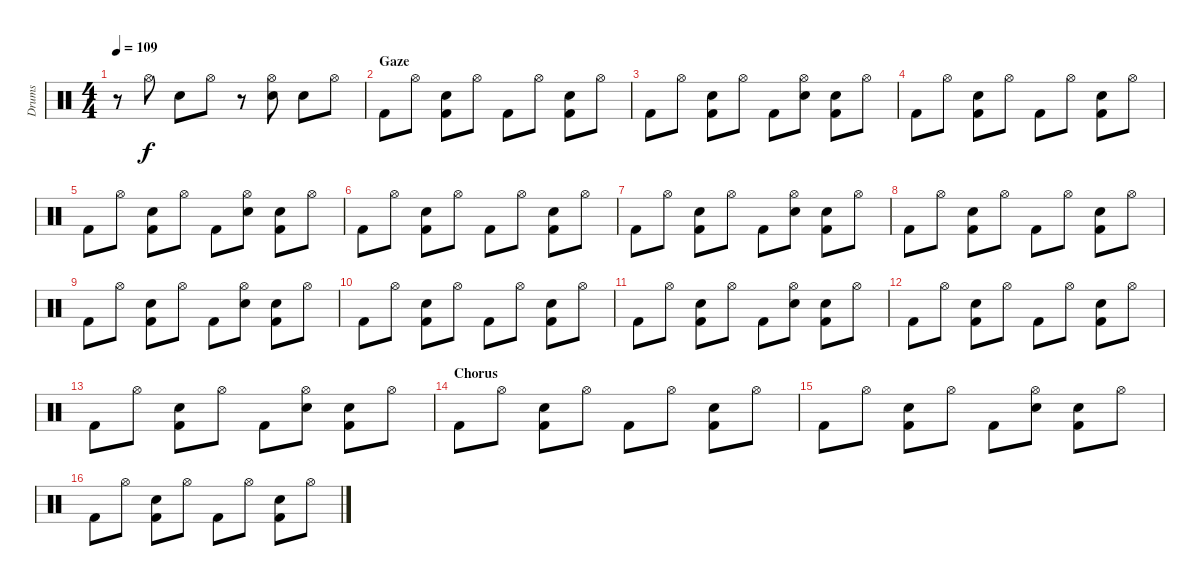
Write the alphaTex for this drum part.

\track ("Drums" "Drums") {instrument percussion}
\staff {score}
\articulation defaults
\ts (4 4)
\tempo 109
\clef neutral
\ks c
r.8{dy f} "Hi-Hat (open)".8 "Hand Clap (hit)".8 "Hi-Hat (open)".8 r.8 ("Hi-Hat (open)" "Hand Clap (hit)").8 "Hand Clap (hit)".8 "Hi-Hat (open)".8 |
\section ("" "Gaze")
"Kick (hit) 2".8 "Hi-Hat (open)".8 ("Hand Clap (hit)" "Kick (hit) 2").8 "Hi-Hat (open)".8 "Kick (hit) 2".8 "Hi-Hat (open)".8 ("Hand Clap (hit)" "Kick (hit) 2").8 "Hi-Hat (open)".8 |
"Kick (hit) 2".8 "Hi-Hat (open)".8 ("Hand Clap (hit)" "Kick (hit) 2").8 "Hi-Hat (open)".8 "Kick (hit) 2".8 ("Hi-Hat (open)" "Hand Clap (hit)").8 ("Hand Clap (hit)" "Kick (hit) 2").8 "Hi-Hat (open)".8 |
"Kick (hit) 2".8 "Hi-Hat (open)".8 ("Hand Clap (hit)" "Kick (hit) 2").8 "Hi-Hat (open)".8 "Kick (hit) 2".8 "Hi-Hat (open)".8 ("Hand Clap (hit)" "Kick (hit) 2").8 "Hi-Hat (open)".8 |
"Kick (hit) 2".8 "Hi-Hat (open)".8 ("Hand Clap (hit)" "Kick (hit) 2").8 "Hi-Hat (open)".8 "Kick (hit) 2".8 ("Hi-Hat (open)" "Hand Clap (hit)").8 ("Hand Clap (hit)" "Kick (hit) 2").8 "Hi-Hat (open)".8 |
"Kick (hit) 2".8 "Hi-Hat (open)".8 ("Hand Clap (hit)" "Kick (hit) 2").8 "Hi-Hat (open)".8 "Kick (hit) 2".8 "Hi-Hat (open)".8 ("Hand Clap (hit)" "Kick (hit) 2").8 "Hi-Hat (open)".8 |
"Kick (hit) 2".8 "Hi-Hat (open)".8 ("Hand Clap (hit)" "Kick (hit) 2").8 "Hi-Hat (open)".8 "Kick (hit) 2".8 ("Hi-Hat (open)" "Hand Clap (hit)").8 ("Hand Clap (hit)" "Kick (hit) 2").8 "Hi-Hat (open)".8 |
"Kick (hit) 2".8 "Hi-Hat (open)".8 ("Hand Clap (hit)" "Kick (hit) 2").8 "Hi-Hat (open)".8 "Kick (hit) 2".8 "Hi-Hat (open)".8 ("Hand Clap (hit)" "Kick (hit) 2").8 "Hi-Hat (open)".8 |
"Kick (hit) 2".8 "Hi-Hat (open)".8 ("Hand Clap (hit)" "Kick (hit) 2").8 "Hi-Hat (open)".8 "Kick (hit) 2".8 ("Hi-Hat (open)" "Hand Clap (hit)").8 ("Hand Clap (hit)" "Kick (hit) 2").8 "Hi-Hat (open)".8 |
"Kick (hit) 2".8 "Hi-Hat (open)".8 ("Hand Clap (hit)" "Kick (hit) 2").8 "Hi-Hat (open)".8 "Kick (hit) 2".8 "Hi-Hat (open)".8 ("Hand Clap (hit)" "Kick (hit) 2").8 "Hi-Hat (open)".8 |
"Kick (hit) 2".8 "Hi-Hat (open)".8 ("Hand Clap (hit)" "Kick (hit) 2").8 "Hi-Hat (open)".8 "Kick (hit) 2".8 ("Hi-Hat (open)" "Hand Clap (hit)").8 ("Hand Clap (hit)" "Kick (hit) 2").8 "Hi-Hat (open)".8 |
"Kick (hit) 2".8 "Hi-Hat (open)".8 ("Hand Clap (hit)" "Kick (hit) 2").8 "Hi-Hat (open)".8 "Kick (hit) 2".8 "Hi-Hat (open)".8 ("Hand Clap (hit)" "Kick (hit) 2").8 "Hi-Hat (open)".8 |
"Kick (hit) 2".8 "Hi-Hat (open)".8 ("Hand Clap (hit)" "Kick (hit) 2").8 "Hi-Hat (open)".8 "Kick (hit) 2".8 ("Hi-Hat (open)" "Hand Clap (hit)").8 ("Hand Clap (hit)" "Kick (hit) 2").8 "Hi-Hat (open)".8 |
\section ("" "Chorus")
"Kick (hit) 2".8 "Hi-Hat (open)".8 ("Hand Clap (hit)" "Kick (hit) 2").8 "Hi-Hat (open)".8 "Kick (hit) 2".8 "Hi-Hat (open)".8 ("Hand Clap (hit)" "Kick (hit) 2").8 "Hi-Hat (open)".8 |
"Kick (hit) 2".8 "Hi-Hat (open)".8 ("Hand Clap (hit)" "Kick (hit) 2").8 "Hi-Hat (open)".8 "Kick (hit) 2".8 ("Hi-Hat (open)" "Hand Clap (hit)").8 ("Hand Clap (hit)" "Kick (hit) 2").8 "Hi-Hat (open)".8 |
"Kick (hit) 2".8 "Hi-Hat (open)".8 ("Hand Clap (hit)" "Kick (hit) 2").8 "Hi-Hat (open)".8 "Kick (hit) 2".8 "Hi-Hat (open)".8 ("Hand Clap (hit)" "Kick (hit) 2").8 "Hi-Hat (open)".8
